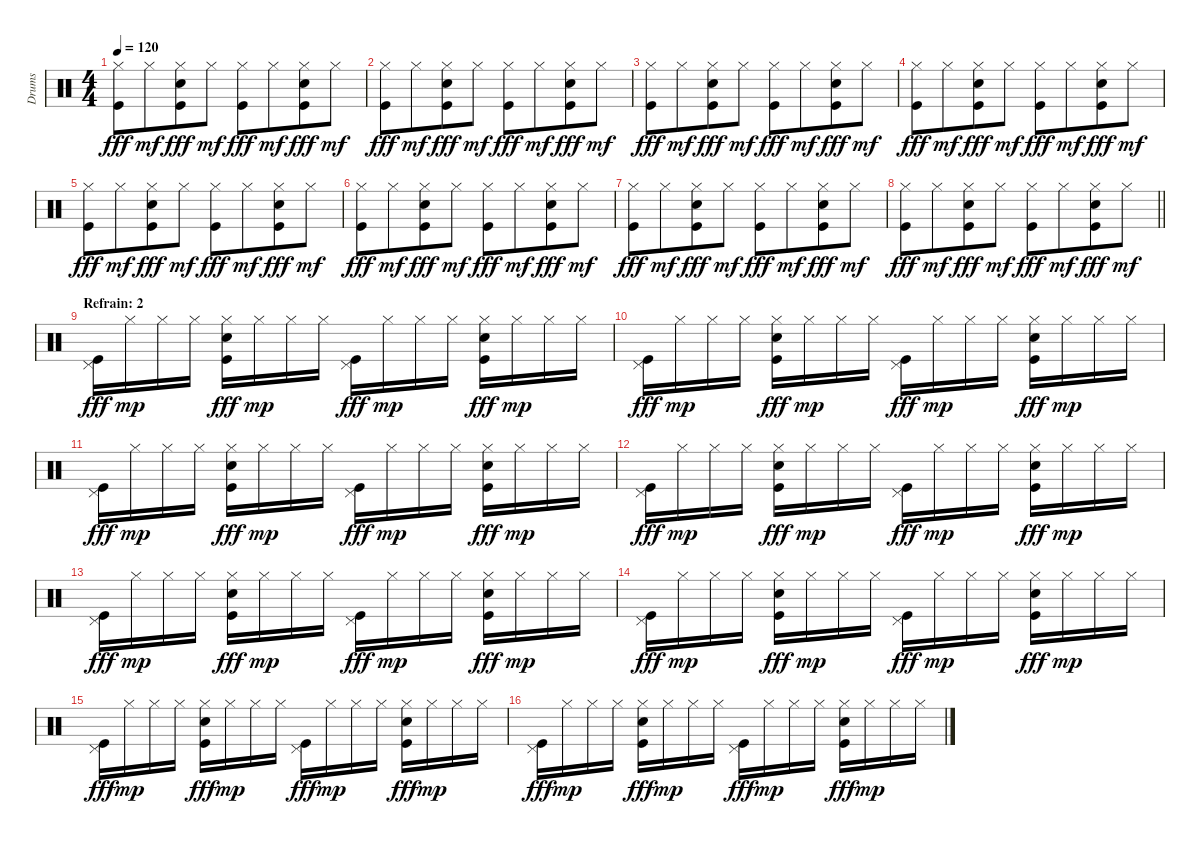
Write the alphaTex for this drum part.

\track ("Drums" "Drums") {instrument percussion}
\staff {score}
\articulation defaults
\ts (4 4)
\tempo 120
\clef neutral
\ks c
("Hi-Hat (closed)" "Kick (hit)").8{dy fff} "Hi-Hat (closed)".8{dy mf beam merge} ("Hi-Hat (closed)" "Snare (hit) 2" "Kick (hit)").8{dy fff} "Hi-Hat (closed)".8{dy mf} ("Hi-Hat (closed)" "Kick (hit)").8{dy fff} "Hi-Hat (closed)".8{dy mf beam merge} ("Hi-Hat (closed)" "Snare (hit) 2" "Kick (hit)").8{dy fff} "Hi-Hat (closed)".8{dy mf} |
("Hi-Hat (closed)" "Kick (hit)").8{dy fff} "Hi-Hat (closed)".8{dy mf beam merge} ("Hi-Hat (closed)" "Snare (hit) 2" "Kick (hit)").8{dy fff} "Hi-Hat (closed)".8{dy mf} ("Hi-Hat (closed)" "Kick (hit)").8{dy fff} "Hi-Hat (closed)".8{dy mf beam merge} ("Hi-Hat (closed)" "Snare (hit) 2" "Kick (hit)").8{dy fff} "Hi-Hat (closed)".8{dy mf} |
("Hi-Hat (closed)" "Kick (hit)").8{dy fff} "Hi-Hat (closed)".8{dy mf beam merge} ("Hi-Hat (closed)" "Snare (hit) 2" "Kick (hit)").8{dy fff} "Hi-Hat (closed)".8{dy mf} ("Hi-Hat (closed)" "Kick (hit)").8{dy fff} "Hi-Hat (closed)".8{dy mf beam merge} ("Hi-Hat (closed)" "Snare (hit) 2" "Kick (hit)").8{dy fff} "Hi-Hat (closed)".8{dy mf} |
("Hi-Hat (closed)" "Kick (hit)").8{dy fff} "Hi-Hat (closed)".8{dy mf beam merge} ("Hi-Hat (closed)" "Snare (hit) 2" "Kick (hit)").8{dy fff} "Hi-Hat (closed)".8{dy mf} ("Hi-Hat (closed)" "Kick (hit)").8{dy fff} "Hi-Hat (closed)".8{dy mf beam merge} ("Hi-Hat (closed)" "Snare (hit) 2" "Kick (hit)").8{dy fff} "Hi-Hat (closed)".8{dy mf} |
("Hi-Hat (closed)" "Kick (hit)").8{dy fff} "Hi-Hat (closed)".8{dy mf beam merge} ("Hi-Hat (closed)" "Snare (hit) 2" "Kick (hit)").8{dy fff} "Hi-Hat (closed)".8{dy mf} ("Hi-Hat (closed)" "Kick (hit)").8{dy fff} "Hi-Hat (closed)".8{dy mf beam merge} ("Hi-Hat (closed)" "Snare (hit) 2" "Kick (hit)").8{dy fff} "Hi-Hat (closed)".8{dy mf} |
("Hi-Hat (closed)" "Kick (hit)").8{dy fff} "Hi-Hat (closed)".8{dy mf beam merge} ("Hi-Hat (closed)" "Snare (hit) 2" "Kick (hit)").8{dy fff} "Hi-Hat (closed)".8{dy mf} ("Hi-Hat (closed)" "Kick (hit)").8{dy fff} "Hi-Hat (closed)".8{dy mf beam merge} ("Hi-Hat (closed)" "Snare (hit) 2" "Kick (hit)").8{dy fff} "Hi-Hat (closed)".8{dy mf} |
("Hi-Hat (closed)" "Kick (hit)").8{dy fff} "Hi-Hat (closed)".8{dy mf beam merge} ("Hi-Hat (closed)" "Snare (hit) 2" "Kick (hit)").8{dy fff} "Hi-Hat (closed)".8{dy mf} ("Hi-Hat (closed)" "Kick (hit)").8{dy fff} "Hi-Hat (closed)".8{dy mf beam merge} ("Hi-Hat (closed)" "Snare (hit) 2" "Kick (hit)").8{dy fff} "Hi-Hat (closed)".8{dy mf} |
\barLineRight lightlight
("Hi-Hat (closed)" "Kick (hit)").8{dy fff} "Hi-Hat (closed)".8{dy mf beam merge} ("Hi-Hat (closed)" "Snare (hit) 2" "Kick (hit)").8{dy fff} "Hi-Hat (closed)".8{dy mf} ("Hi-Hat (closed)" "Kick (hit)").8{dy fff} "Hi-Hat (closed)".8{dy mf beam merge} ("Hi-Hat (closed)" "Snare (hit) 2" "Kick (hit)").8{dy fff} "Hi-Hat (closed)".8{dy mf} |
\section ("" "Refrain: 2")
("Pedal Hi-Hat (hit)" "Kick (hit)").16{dy fff} "Hi-Hat (closed)".16{dy mp} "Hi-Hat (closed)".16 "Hi-Hat (closed)".16 ("Hi-Hat (closed)" "Snare (hit) 2" "Kick (hit)").16{dy fff} "Hi-Hat (closed)".16{dy mp} "Hi-Hat (closed)".16 "Hi-Hat (closed)".16 ("Pedal Hi-Hat (hit)" "Kick (hit)").16{dy fff} "Hi-Hat (closed)".16{dy mp} "Hi-Hat (closed)".16 "Hi-Hat (closed)".16 ("Hi-Hat (closed)" "Snare (hit) 2" "Kick (hit)").16{dy fff} "Hi-Hat (closed)".16{dy mp} "Hi-Hat (closed)".16 "Hi-Hat (closed)".16 |
("Pedal Hi-Hat (hit)" "Kick (hit)").16{dy fff} "Hi-Hat (closed)".16{dy mp} "Hi-Hat (closed)".16 "Hi-Hat (closed)".16 ("Hi-Hat (closed)" "Snare (hit) 2" "Kick (hit)").16{dy fff} "Hi-Hat (closed)".16{dy mp} "Hi-Hat (closed)".16 "Hi-Hat (closed)".16 ("Pedal Hi-Hat (hit)" "Kick (hit)").16{dy fff} "Hi-Hat (closed)".16{dy mp} "Hi-Hat (closed)".16 "Hi-Hat (closed)".16 ("Hi-Hat (closed)" "Snare (hit) 2" "Kick (hit)").16{dy fff} "Hi-Hat (closed)".16{dy mp} "Hi-Hat (closed)".16 "Hi-Hat (closed)".16 |
("Pedal Hi-Hat (hit)" "Kick (hit)").16{dy fff} "Hi-Hat (closed)".16{dy mp} "Hi-Hat (closed)".16 "Hi-Hat (closed)".16 ("Hi-Hat (closed)" "Snare (hit) 2" "Kick (hit)").16{dy fff} "Hi-Hat (closed)".16{dy mp} "Hi-Hat (closed)".16 "Hi-Hat (closed)".16 ("Pedal Hi-Hat (hit)" "Kick (hit)").16{dy fff} "Hi-Hat (closed)".16{dy mp} "Hi-Hat (closed)".16 "Hi-Hat (closed)".16 ("Hi-Hat (closed)" "Snare (hit) 2" "Kick (hit)").16{dy fff} "Hi-Hat (closed)".16{dy mp} "Hi-Hat (closed)".16 "Hi-Hat (closed)".16 |
("Pedal Hi-Hat (hit)" "Kick (hit)").16{dy fff} "Hi-Hat (closed)".16{dy mp} "Hi-Hat (closed)".16 "Hi-Hat (closed)".16 ("Hi-Hat (closed)" "Snare (hit) 2" "Kick (hit)").16{dy fff} "Hi-Hat (closed)".16{dy mp} "Hi-Hat (closed)".16 "Hi-Hat (closed)".16 ("Pedal Hi-Hat (hit)" "Kick (hit)").16{dy fff} "Hi-Hat (closed)".16{dy mp} "Hi-Hat (closed)".16 "Hi-Hat (closed)".16 ("Hi-Hat (closed)" "Snare (hit) 2" "Kick (hit)").16{dy fff} "Hi-Hat (closed)".16{dy mp} "Hi-Hat (closed)".16 "Hi-Hat (closed)".16 |
("Pedal Hi-Hat (hit)" "Kick (hit)").16{dy fff} "Hi-Hat (closed)".16{dy mp} "Hi-Hat (closed)".16 "Hi-Hat (closed)".16 ("Hi-Hat (closed)" "Snare (hit) 2" "Kick (hit)").16{dy fff} "Hi-Hat (closed)".16{dy mp} "Hi-Hat (closed)".16 "Hi-Hat (closed)".16 ("Pedal Hi-Hat (hit)" "Kick (hit)").16{dy fff} "Hi-Hat (closed)".16{dy mp} "Hi-Hat (closed)".16 "Hi-Hat (closed)".16 ("Hi-Hat (closed)" "Snare (hit) 2" "Kick (hit)").16{dy fff} "Hi-Hat (closed)".16{dy mp} "Hi-Hat (closed)".16 "Hi-Hat (closed)".16 |
("Pedal Hi-Hat (hit)" "Kick (hit)").16{dy fff} "Hi-Hat (closed)".16{dy mp} "Hi-Hat (closed)".16 "Hi-Hat (closed)".16 ("Hi-Hat (closed)" "Snare (hit) 2" "Kick (hit)").16{dy fff} "Hi-Hat (closed)".16{dy mp} "Hi-Hat (closed)".16 "Hi-Hat (closed)".16 ("Pedal Hi-Hat (hit)" "Kick (hit)").16{dy fff} "Hi-Hat (closed)".16{dy mp} "Hi-Hat (closed)".16 "Hi-Hat (closed)".16 ("Hi-Hat (closed)" "Snare (hit) 2" "Kick (hit)").16{dy fff} "Hi-Hat (closed)".16{dy mp} "Hi-Hat (closed)".16 "Hi-Hat (closed)".16 |
("Pedal Hi-Hat (hit)" "Kick (hit)").16{dy fff} "Hi-Hat (closed)".16{dy mp} "Hi-Hat (closed)".16 "Hi-Hat (closed)".16 ("Hi-Hat (closed)" "Snare (hit) 2" "Kick (hit)").16{dy fff} "Hi-Hat (closed)".16{dy mp} "Hi-Hat (closed)".16 "Hi-Hat (closed)".16 ("Pedal Hi-Hat (hit)" "Kick (hit)").16{dy fff} "Hi-Hat (closed)".16{dy mp} "Hi-Hat (closed)".16 "Hi-Hat (closed)".16 ("Hi-Hat (closed)" "Snare (hit) 2" "Kick (hit)").16{dy fff} "Hi-Hat (closed)".16{dy mp} "Hi-Hat (closed)".16 "Hi-Hat (closed)".16 |
("Pedal Hi-Hat (hit)" "Kick (hit)").16{dy fff} "Hi-Hat (closed)".16{dy mp} "Hi-Hat (closed)".16 "Hi-Hat (closed)".16 ("Hi-Hat (closed)" "Snare (hit) 2" "Kick (hit)").16{dy fff} "Hi-Hat (closed)".16{dy mp} "Hi-Hat (closed)".16 "Hi-Hat (closed)".16 ("Pedal Hi-Hat (hit)" "Kick (hit)").16{dy fff} "Hi-Hat (closed)".16{dy mp} "Hi-Hat (closed)".16 "Hi-Hat (closed)".16 ("Hi-Hat (closed)" "Snare (hit) 2" "Kick (hit)").16{dy fff} "Hi-Hat (closed)".16{dy mp} "Hi-Hat (closed)".16 "Hi-Hat (closed)".16
